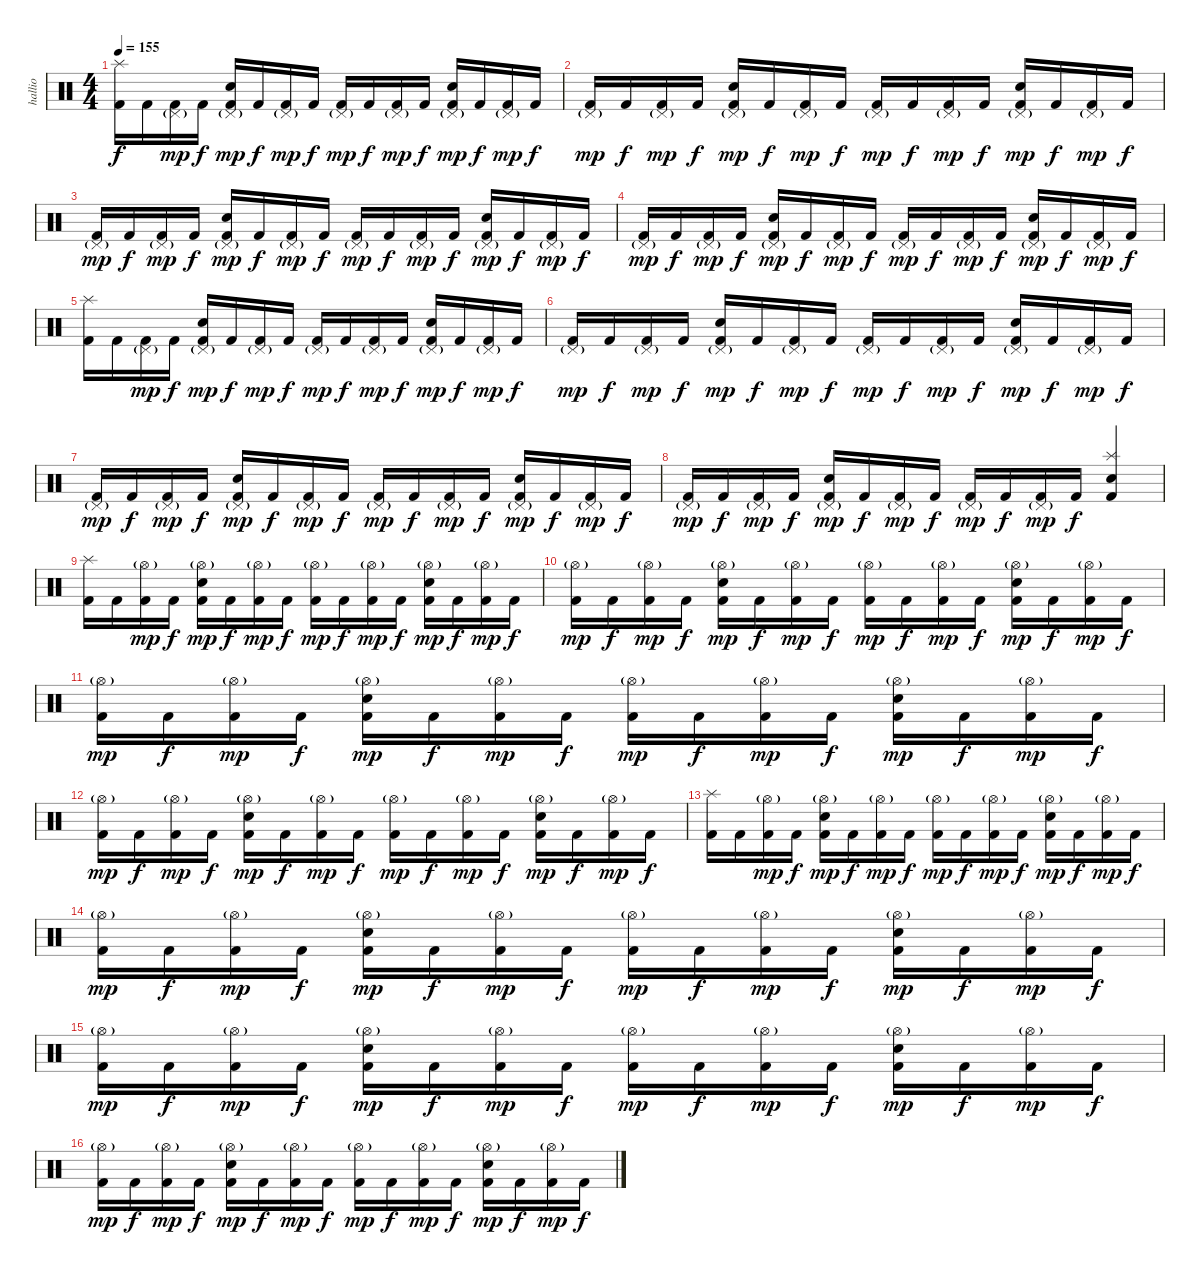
\track ("hallio" "hallio") {instrument percussion}
\staff {score}
\articulation defaults
\ts (4 4)
\tempo 155
\clef neutral
\ks c
("Kick (hit) 2" "Splash (hit)").16{dy f} "Kick (hit) 2".16 ("Kick (hit) 2" "Pedal Hi-Hat (hit)"{g}).16{dy mp} "Kick (hit) 2".16{dy f} ("Kick (hit) 2" "Snare (hit) 2" "Pedal Hi-Hat (hit)"{g}).16{dy mp} "Kick (hit) 2".16{dy f} ("Kick (hit) 2" "Pedal Hi-Hat (hit)"{g}).16{dy mp} "Kick (hit) 2".16{dy f} ("Kick (hit) 2" "Pedal Hi-Hat (hit)"{g}).16{dy mp} "Kick (hit) 2".16{dy f} ("Kick (hit) 2" "Pedal Hi-Hat (hit)"{g}).16{dy mp} "Kick (hit) 2".16{dy f} ("Kick (hit) 2" "Snare (hit) 2" "Pedal Hi-Hat (hit)"{g}).16{dy mp} "Kick (hit) 2".16{dy f} ("Kick (hit) 2" "Pedal Hi-Hat (hit)"{g}).16{dy mp} "Kick (hit) 2".16{dy f} |
("Kick (hit) 2" "Pedal Hi-Hat (hit)"{g}).16{dy mp} "Kick (hit) 2".16{dy f} ("Kick (hit) 2" "Pedal Hi-Hat (hit)"{g}).16{dy mp} "Kick (hit) 2".16{dy f} ("Kick (hit) 2" "Snare (hit) 2" "Pedal Hi-Hat (hit)"{g}).16{dy mp} "Kick (hit) 2".16{dy f} ("Kick (hit) 2" "Pedal Hi-Hat (hit)"{g}).16{dy mp} "Kick (hit) 2".16{dy f} ("Kick (hit) 2" "Pedal Hi-Hat (hit)"{g}).16{dy mp} "Kick (hit) 2".16{dy f} ("Kick (hit) 2" "Pedal Hi-Hat (hit)"{g}).16{dy mp} "Kick (hit) 2".16{dy f} ("Kick (hit) 2" "Snare (hit) 2" "Pedal Hi-Hat (hit)"{g}).16{dy mp} "Kick (hit) 2".16{dy f} ("Kick (hit) 2" "Pedal Hi-Hat (hit)"{g}).16{dy mp} "Kick (hit) 2".16{dy f} |
("Kick (hit) 2" "Pedal Hi-Hat (hit)"{g}).16{dy mp} "Kick (hit) 2".16{dy f} ("Kick (hit) 2" "Pedal Hi-Hat (hit)"{g}).16{dy mp} "Kick (hit) 2".16{dy f} ("Kick (hit) 2" "Snare (hit) 2" "Pedal Hi-Hat (hit)"{g}).16{dy mp} "Kick (hit) 2".16{dy f} ("Kick (hit) 2" "Pedal Hi-Hat (hit)"{g}).16{dy mp} "Kick (hit) 2".16{dy f} ("Kick (hit) 2" "Pedal Hi-Hat (hit)"{g}).16{dy mp} "Kick (hit) 2".16{dy f} ("Kick (hit) 2" "Pedal Hi-Hat (hit)"{g}).16{dy mp} "Kick (hit) 2".16{dy f} ("Kick (hit) 2" "Snare (hit) 2" "Pedal Hi-Hat (hit)"{g}).16{dy mp} "Kick (hit) 2".16{dy f} ("Kick (hit) 2" "Pedal Hi-Hat (hit)"{g}).16{dy mp} "Kick (hit) 2".16{dy f} |
("Kick (hit) 2" "Pedal Hi-Hat (hit)"{g}).16{dy mp} "Kick (hit) 2".16{dy f} ("Kick (hit) 2" "Pedal Hi-Hat (hit)"{g}).16{dy mp} "Kick (hit) 2".16{dy f} ("Kick (hit) 2" "Snare (hit) 2" "Pedal Hi-Hat (hit)"{g}).16{dy mp} "Kick (hit) 2".16{dy f} ("Kick (hit) 2" "Pedal Hi-Hat (hit)"{g}).16{dy mp} "Kick (hit) 2".16{dy f} ("Kick (hit) 2" "Pedal Hi-Hat (hit)"{g}).16{dy mp} "Kick (hit) 2".16{dy f} ("Kick (hit) 2" "Pedal Hi-Hat (hit)"{g}).16{dy mp} "Kick (hit) 2".16{dy f} ("Kick (hit) 2" "Snare (hit) 2" "Pedal Hi-Hat (hit)"{g}).16{dy mp} "Kick (hit) 2".16{dy f} ("Kick (hit) 2" "Pedal Hi-Hat (hit)"{g}).16{dy mp} "Kick (hit) 2".16{dy f} |
("Kick (hit) 2" "Splash (hit)").16 "Kick (hit) 2".16 ("Kick (hit) 2" "Pedal Hi-Hat (hit)"{g}).16{dy mp} "Kick (hit) 2".16{dy f} ("Kick (hit) 2" "Snare (hit) 2" "Pedal Hi-Hat (hit)"{g}).16{dy mp} "Kick (hit) 2".16{dy f} ("Kick (hit) 2" "Pedal Hi-Hat (hit)"{g}).16{dy mp} "Kick (hit) 2".16{dy f} ("Kick (hit) 2" "Pedal Hi-Hat (hit)"{g}).16{dy mp} "Kick (hit) 2".16{dy f} ("Kick (hit) 2" "Pedal Hi-Hat (hit)"{g}).16{dy mp} "Kick (hit) 2".16{dy f} ("Kick (hit) 2" "Snare (hit) 2" "Pedal Hi-Hat (hit)"{g}).16{dy mp} "Kick (hit) 2".16{dy f} ("Kick (hit) 2" "Pedal Hi-Hat (hit)"{g}).16{dy mp} "Kick (hit) 2".16{dy f} |
("Kick (hit) 2" "Pedal Hi-Hat (hit)"{g}).16{dy mp} "Kick (hit) 2".16{dy f} ("Kick (hit) 2" "Pedal Hi-Hat (hit)"{g}).16{dy mp} "Kick (hit) 2".16{dy f} ("Kick (hit) 2" "Snare (hit) 2" "Pedal Hi-Hat (hit)"{g}).16{dy mp} "Kick (hit) 2".16{dy f} ("Kick (hit) 2" "Pedal Hi-Hat (hit)"{g}).16{dy mp} "Kick (hit) 2".16{dy f} ("Kick (hit) 2" "Pedal Hi-Hat (hit)"{g}).16{dy mp} "Kick (hit) 2".16{dy f} ("Kick (hit) 2" "Pedal Hi-Hat (hit)"{g}).16{dy mp} "Kick (hit) 2".16{dy f} ("Kick (hit) 2" "Snare (hit) 2" "Pedal Hi-Hat (hit)"{g}).16{dy mp} "Kick (hit) 2".16{dy f} ("Kick (hit) 2" "Pedal Hi-Hat (hit)"{g}).16{dy mp} "Kick (hit) 2".16{dy f} |
("Kick (hit) 2" "Pedal Hi-Hat (hit)"{g}).16{dy mp} "Kick (hit) 2".16{dy f} ("Kick (hit) 2" "Pedal Hi-Hat (hit)"{g}).16{dy mp} "Kick (hit) 2".16{dy f} ("Kick (hit) 2" "Snare (hit) 2" "Pedal Hi-Hat (hit)"{g}).16{dy mp} "Kick (hit) 2".16{dy f} ("Kick (hit) 2" "Pedal Hi-Hat (hit)"{g}).16{dy mp} "Kick (hit) 2".16{dy f} ("Kick (hit) 2" "Pedal Hi-Hat (hit)"{g}).16{dy mp} "Kick (hit) 2".16{dy f} ("Kick (hit) 2" "Pedal Hi-Hat (hit)"{g}).16{dy mp} "Kick (hit) 2".16{dy f} ("Kick (hit) 2" "Snare (hit) 2" "Pedal Hi-Hat (hit)"{g}).16{dy mp} "Kick (hit) 2".16{dy f} ("Kick (hit) 2" "Pedal Hi-Hat (hit)"{g}).16{dy mp} "Kick (hit) 2".16{dy f} |
("Kick (hit) 2" "Pedal Hi-Hat (hit)"{g}).16{dy mp} "Kick (hit) 2".16{dy f} ("Kick (hit) 2" "Pedal Hi-Hat (hit)"{g}).16{dy mp} "Kick (hit) 2".16{dy f} ("Kick (hit) 2" "Snare (hit) 2" "Pedal Hi-Hat (hit)"{g}).16{dy mp} "Kick (hit) 2".16{dy f} ("Kick (hit) 2" "Pedal Hi-Hat (hit)"{g}).16{dy mp} "Kick (hit) 2".16{dy f} ("Kick (hit) 2" "Pedal Hi-Hat (hit)"{g}).16{dy mp} "Kick (hit) 2".16{dy f} ("Kick (hit) 2" "Pedal Hi-Hat (hit)"{g}).16{dy mp} "Kick (hit) 2".16{dy f} ("Kick (hit) 2" "Snare (hit) 2" "Splash (hit)").4 |
("Kick (hit) 2" "Splash (hit)").16 "Kick (hit) 2".16 ("Kick (hit) 2" "Hi-Hat (open)"{g}).16{dy mp} "Kick (hit) 2".16{dy f} ("Kick (hit) 2" "Snare (hit) 2" "Hi-Hat (open)"{g}).16{dy mp} "Kick (hit) 2".16{dy f} ("Kick (hit) 2" "Hi-Hat (open)"{g}).16{dy mp} "Kick (hit) 2".16{dy f} ("Kick (hit) 2" "Hi-Hat (open)"{g}).16{dy mp} "Kick (hit) 2".16{dy f} ("Kick (hit) 2" "Hi-Hat (open)"{g}).16{dy mp} "Kick (hit) 2".16{dy f} ("Kick (hit) 2" "Snare (hit) 2" "Hi-Hat (open)"{g}).16{dy mp} "Kick (hit) 2".16{dy f} ("Kick (hit) 2" "Hi-Hat (open)"{g}).16{dy mp} "Kick (hit) 2".16{dy f} |
("Kick (hit) 2" "Hi-Hat (open)"{g}).16{dy mp} "Kick (hit) 2".16{dy f} ("Kick (hit) 2" "Hi-Hat (open)"{g}).16{dy mp} "Kick (hit) 2".16{dy f} ("Kick (hit) 2" "Snare (hit) 2" "Hi-Hat (open)"{g}).16{dy mp} "Kick (hit) 2".16{dy f} ("Kick (hit) 2" "Hi-Hat (open)"{g}).16{dy mp} "Kick (hit) 2".16{dy f} ("Kick (hit) 2" "Hi-Hat (open)"{g}).16{dy mp} "Kick (hit) 2".16{dy f} ("Kick (hit) 2" "Hi-Hat (open)"{g}).16{dy mp} "Kick (hit) 2".16{dy f} ("Kick (hit) 2" "Snare (hit) 2" "Hi-Hat (open)"{g}).16{dy mp} "Kick (hit) 2".16{dy f} ("Kick (hit) 2" "Hi-Hat (open)"{g}).16{dy mp} "Kick (hit) 2".16{dy f} |
("Kick (hit) 2" "Hi-Hat (open)"{g}).16{dy mp} "Kick (hit) 2".16{dy f} ("Kick (hit) 2" "Hi-Hat (open)"{g}).16{dy mp} "Kick (hit) 2".16{dy f} ("Kick (hit) 2" "Snare (hit) 2" "Hi-Hat (open)"{g}).16{dy mp} "Kick (hit) 2".16{dy f} ("Kick (hit) 2" "Hi-Hat (open)"{g}).16{dy mp} "Kick (hit) 2".16{dy f} ("Kick (hit) 2" "Hi-Hat (open)"{g}).16{dy mp} "Kick (hit) 2".16{dy f} ("Kick (hit) 2" "Hi-Hat (open)"{g}).16{dy mp} "Kick (hit) 2".16{dy f} ("Kick (hit) 2" "Snare (hit) 2" "Hi-Hat (open)"{g}).16{dy mp} "Kick (hit) 2".16{dy f} ("Kick (hit) 2" "Hi-Hat (open)"{g}).16{dy mp} "Kick (hit) 2".16{dy f} |
("Kick (hit) 2" "Hi-Hat (open)"{g}).16{dy mp} "Kick (hit) 2".16{dy f} ("Kick (hit) 2" "Hi-Hat (open)"{g}).16{dy mp} "Kick (hit) 2".16{dy f} ("Kick (hit) 2" "Snare (hit) 2" "Hi-Hat (open)"{g}).16{dy mp} "Kick (hit) 2".16{dy f} ("Kick (hit) 2" "Hi-Hat (open)"{g}).16{dy mp} "Kick (hit) 2".16{dy f} ("Kick (hit) 2" "Hi-Hat (open)"{g}).16{dy mp} "Kick (hit) 2".16{dy f} ("Kick (hit) 2" "Hi-Hat (open)"{g}).16{dy mp} "Kick (hit) 2".16{dy f} ("Kick (hit) 2" "Snare (hit) 2" "Hi-Hat (open)"{g}).16{dy mp} "Kick (hit) 2".16{dy f} ("Kick (hit) 2" "Hi-Hat (open)"{g}).16{dy mp} "Kick (hit) 2".16{dy f} |
("Kick (hit) 2" "Splash (hit)").16 "Kick (hit) 2".16 ("Kick (hit) 2" "Hi-Hat (open)"{g}).16{dy mp} "Kick (hit) 2".16{dy f} ("Kick (hit) 2" "Snare (hit) 2" "Hi-Hat (open)"{g}).16{dy mp} "Kick (hit) 2".16{dy f} ("Kick (hit) 2" "Hi-Hat (open)"{g}).16{dy mp} "Kick (hit) 2".16{dy f} ("Kick (hit) 2" "Hi-Hat (open)"{g}).16{dy mp} "Kick (hit) 2".16{dy f} ("Kick (hit) 2" "Hi-Hat (open)"{g}).16{dy mp} "Kick (hit) 2".16{dy f} ("Kick (hit) 2" "Snare (hit) 2" "Hi-Hat (open)"{g}).16{dy mp} "Kick (hit) 2".16{dy f} ("Kick (hit) 2" "Hi-Hat (open)"{g}).16{dy mp} "Kick (hit) 2".16{dy f} |
("Kick (hit) 2" "Hi-Hat (open)"{g}).16{dy mp} "Kick (hit) 2".16{dy f} ("Kick (hit) 2" "Hi-Hat (open)"{g}).16{dy mp} "Kick (hit) 2".16{dy f} ("Kick (hit) 2" "Snare (hit) 2" "Hi-Hat (open)"{g}).16{dy mp} "Kick (hit) 2".16{dy f} ("Kick (hit) 2" "Hi-Hat (open)"{g}).16{dy mp} "Kick (hit) 2".16{dy f} ("Kick (hit) 2" "Hi-Hat (open)"{g}).16{dy mp} "Kick (hit) 2".16{dy f} ("Kick (hit) 2" "Hi-Hat (open)"{g}).16{dy mp} "Kick (hit) 2".16{dy f} ("Kick (hit) 2" "Snare (hit) 2" "Hi-Hat (open)"{g}).16{dy mp} "Kick (hit) 2".16{dy f} ("Kick (hit) 2" "Hi-Hat (open)"{g}).16{dy mp} "Kick (hit) 2".16{dy f} |
("Kick (hit) 2" "Hi-Hat (open)"{g}).16{dy mp} "Kick (hit) 2".16{dy f} ("Kick (hit) 2" "Hi-Hat (open)"{g}).16{dy mp} "Kick (hit) 2".16{dy f} ("Kick (hit) 2" "Snare (hit) 2" "Hi-Hat (open)"{g}).16{dy mp} "Kick (hit) 2".16{dy f} ("Kick (hit) 2" "Hi-Hat (open)"{g}).16{dy mp} "Kick (hit) 2".16{dy f} ("Kick (hit) 2" "Hi-Hat (open)"{g}).16{dy mp} "Kick (hit) 2".16{dy f} ("Kick (hit) 2" "Hi-Hat (open)"{g}).16{dy mp} "Kick (hit) 2".16{dy f} ("Kick (hit) 2" "Snare (hit) 2" "Hi-Hat (open)"{g}).16{dy mp} "Kick (hit) 2".16{dy f} ("Kick (hit) 2" "Hi-Hat (open)"{g}).16{dy mp} "Kick (hit) 2".16{dy f} |
("Kick (hit) 2" "Hi-Hat (open)"{g}).16{dy mp} "Kick (hit) 2".16{dy f} ("Kick (hit) 2" "Hi-Hat (open)"{g}).16{dy mp} "Kick (hit) 2".16{dy f} ("Kick (hit) 2" "Snare (hit) 2" "Hi-Hat (open)"{g}).16{dy mp} "Kick (hit) 2".16{dy f} ("Kick (hit) 2" "Hi-Hat (open)"{g}).16{dy mp} "Kick (hit) 2".16{dy f} ("Kick (hit) 2" "Hi-Hat (open)"{g}).16{dy mp} "Kick (hit) 2".16{dy f} ("Kick (hit) 2" "Hi-Hat (open)"{g}).16{dy mp} "Kick (hit) 2".16{dy f} ("Kick (hit) 2" "Snare (hit) 2" "Hi-Hat (open)"{g}).16{dy mp} "Kick (hit) 2".16{dy f} ("Kick (hit) 2" "Hi-Hat (open)"{g}).16{dy mp} "Kick (hit) 2".16{dy f}
